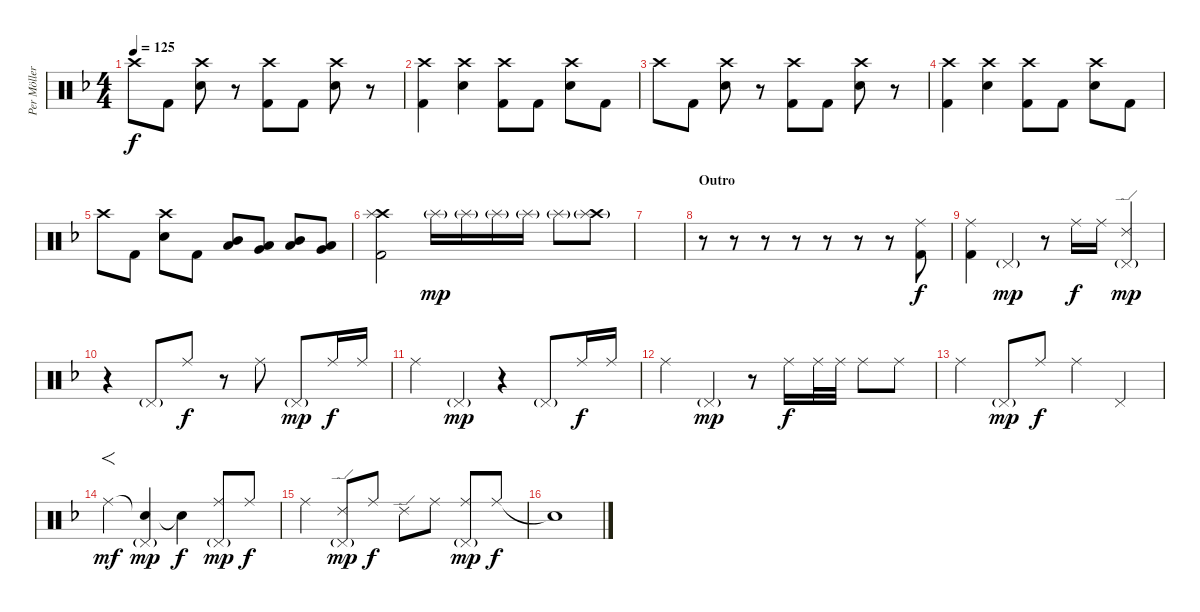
\track ("Per Möller Jensen" "Per Möller") {instrument percussion}
\staff {score}
\articulation defaults
\ts (4 4)
\tempo 125
\clef neutral
\ks dminor "Crash high (hit)".8{dy f} "Kick (hit) 2".8
("Crash high (hit)" "Electric Snare (hit)").8 r.8 ("Crash high (hit)" "Kick (hit) 2").8 "Kick (hit) 2".8 ("Crash high (hit)" "Electric Snare (hit)").8 r.8 |
("Crash high (hit)" "Kick (hit) 2").4 ("Crash high (hit)" "Electric Snare (hit)").4 ("Crash high (hit)" "Kick (hit) 2").8 "Kick (hit) 2".8 ("Crash high (hit)" "Electric Snare (hit)").8 "Kick (hit) 2".8 |
"Crash high (hit)".8 "Kick (hit) 2".8 ("Crash high (hit)" "Electric Snare (hit)").8 r.8 ("Crash high (hit)" "Kick (hit) 2").8 "Kick (hit) 2".8 ("Crash high (hit)" "Electric Snare (hit)").8 r.8 |
("Crash high (hit)" "Kick (hit) 2").4 ("Crash high (hit)" "Electric Snare (hit)").4 ("Crash high (hit)" "Kick (hit) 2").8 "Kick (hit) 2".8 ("Crash high (hit)" "Electric Snare (hit)").8 "Kick (hit) 2".8 |
"Crash high (hit)".8 "Kick (hit) 2".8 ("Crash high (hit)" "Electric Snare (hit)").8 "Kick (hit) 2".8 ("Mid Tom (hit)" "Low Tom (hit)").8 ("Low Tom (hit)" "Very Low Tom (hit)").8 ("Mid Tom (hit)" "Low Tom (hit)").8 ("Very Low Tom (hit)" "Low Floor Tom (hit)").8 |
("Crash high (hit)" "Splash (hit)" "Kick (hit) 2").2 "Splash (hit)"{g}.16{dy mp} "Splash (hit)"{g}.16 "Splash (hit)"{g}.16 "Splash (hit)"{g}.16 "Splash (hit)"{g}.8 ("Crash high (hit)"{g} "Splash (hit)"{g}).8 |
|
\section ("" "Outro")
r.8 r.8 r.8 r.8 r.8 r.8 r.8 ("Ride (middle)" "Kick (hit) 2").8{dy f} |
("Ride (middle)" "Kick (hit) 2").4 "Pedal Hi-Hat (hit)"{g}.4{dy mp} r.8 "Ride (middle)".16{dy f} "Ride (middle)".16 ("Ride (edge) 2" "Pedal Hi-Hat (hit)"{g}).4{dy mp} |
r.4 "Pedal Hi-Hat (hit)"{g}.8 "Ride (middle)".8{dy f} r.8 "Ride (middle)".8 "Pedal Hi-Hat (hit)"{g}.8{dy mp} "Ride (middle)".16{dy f} "Ride (middle)".16 |
"Ride (middle)".4 "Pedal Hi-Hat (hit)"{g}.4{dy mp} r.4 "Pedal Hi-Hat (hit)"{g}.8 "Ride (middle)".16{dy f} "Ride (middle)".16 |
"Ride (middle)".4 "Pedal Hi-Hat (hit)"{g}.4{dy mp} r.8 "Ride (middle)".16{dy f} "Ride (middle)".32 "Ride (middle)".32 "Ride (middle)".8 "Ride (middle)".8 |
"Ride (middle)".4 "Pedal Hi-Hat (hit)"{g}.8{dy mp} "Ride (middle)".8{dy f} "Ride (middle)".4 "Pedal Hi-Hat (hit)".4 |
"Ride (middle)"{tr (51 32)}.4{f dy mf} ("Snare (hit)"{t} "Pedal Hi-Hat (hit)"{g}).4{dy mp} "Snare (hit)"{t}.4{dy f} ("Ride (middle)" "Pedal Hi-Hat (hit)"{g}).8{dy mp} "Ride (middle)".8{dy f} |
"Ride (middle)".4 ("Ride (edge) 2" "Pedal Hi-Hat (hit)"{g}).8{dy mp} "Ride (middle)".8{dy f} "Ride (edge) 2".8 "Ride (middle)".8 ("Ride (middle)" "Pedal Hi-Hat (hit)"{g}).8{dy mp} "Ride (middle)".8{dy f} |
"Snare (hit)"{t}.1
